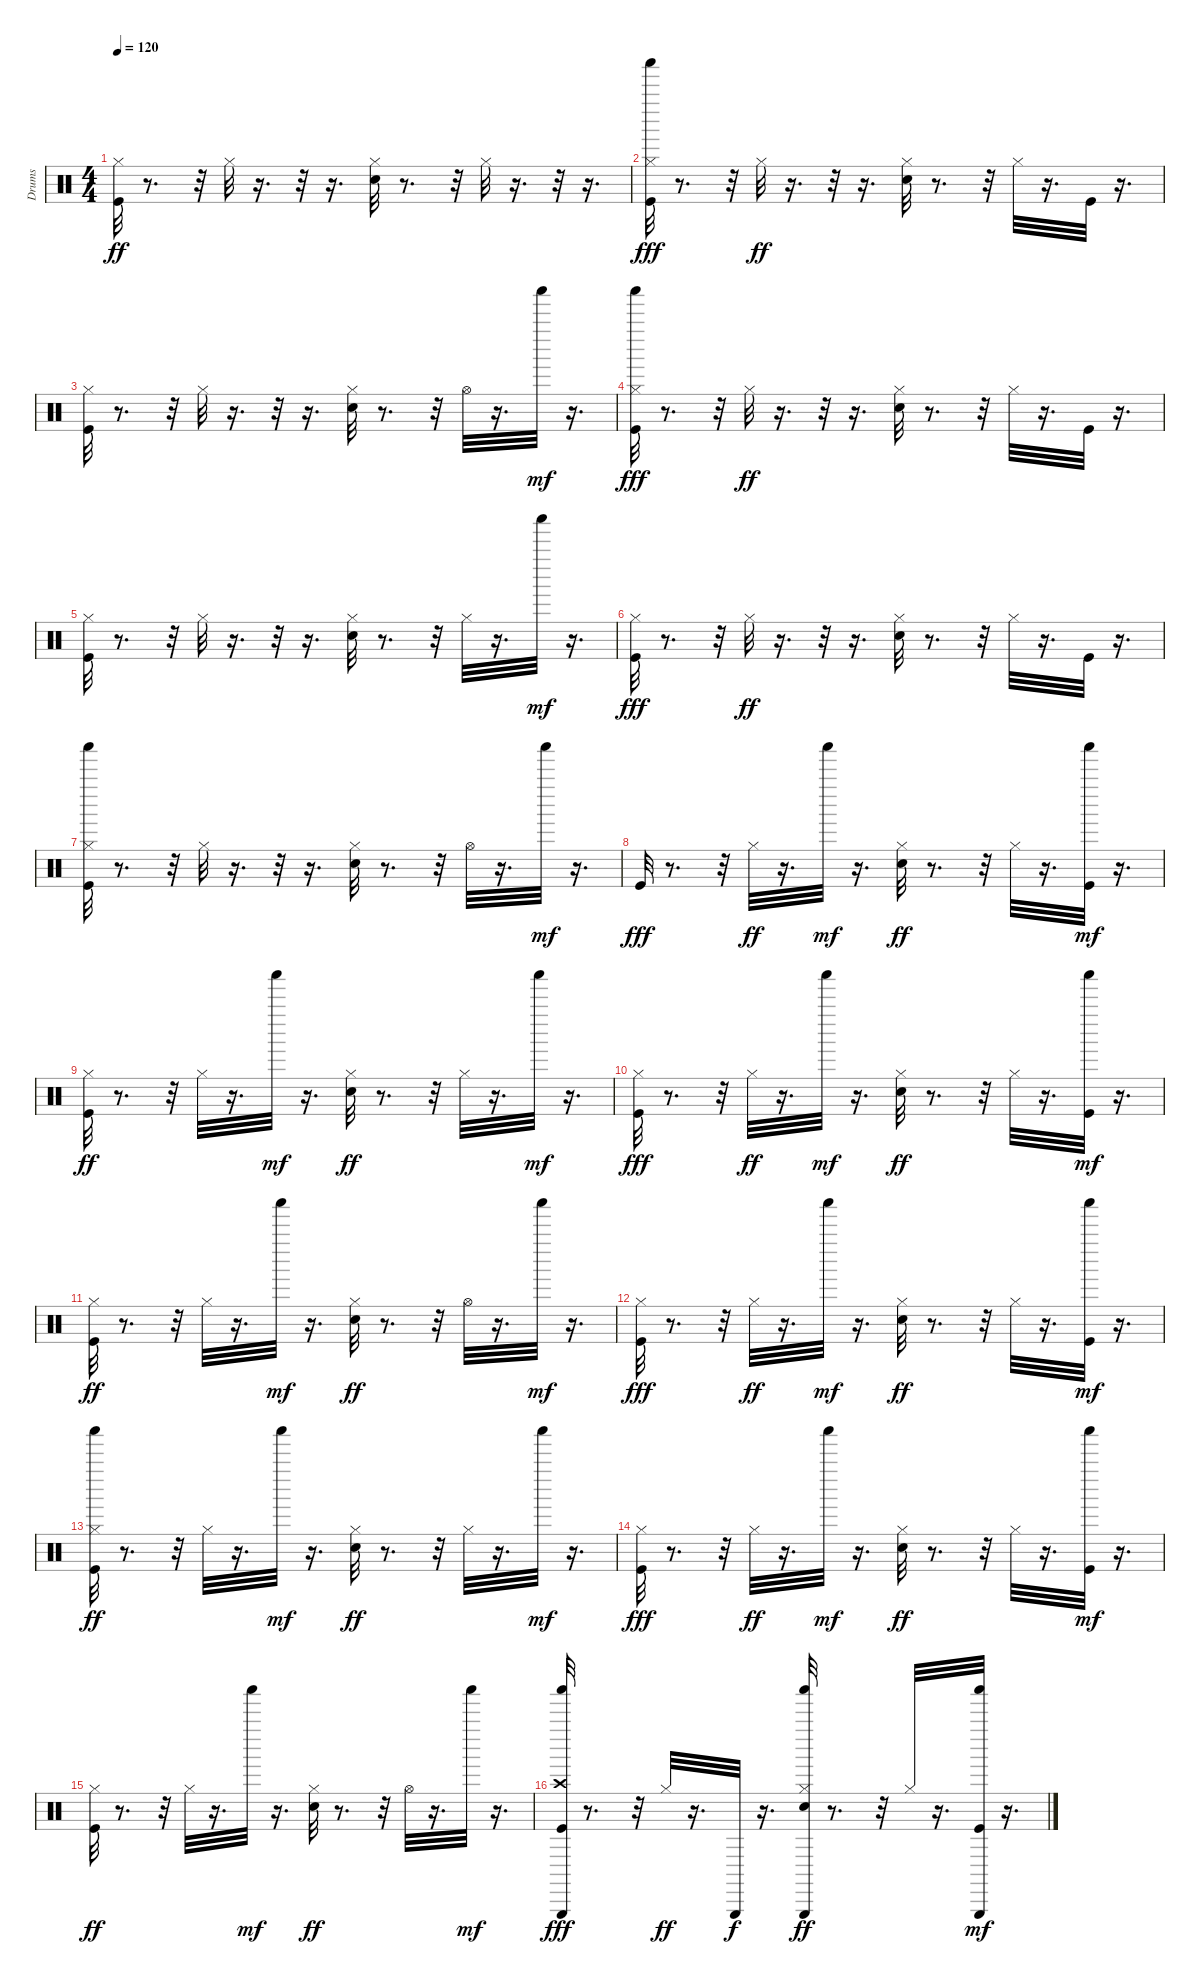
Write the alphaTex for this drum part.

\track ("Drums" "Drums") {instrument percussion}
\staff {score}
\articulation defaults
\ts (4 4)
\tempo 120
\clef neutral
\ks c
("Kick (hit)" "Hi-Hat (closed)").32{dy ff} r.8{d} r.32 "Hi-Hat (closed)".32 r.16{d} r.32 r.16{d} ("Electric Snare (hit)" "Hi-Hat (closed)").32 r.8{d} r.32 "Hi-Hat (closed)".32 r.16{d} r.32 r.16{d} |
("Shaker (hit)" "Hi-Hat (closed)" "Kick (hit)").32{dy fff} r.8{d} r.32 "Hi-Hat (closed)".32{dy ff} r.16{d} r.32 r.16{d} ("Electric Snare (hit)" "Hi-Hat (closed)").32 r.8{d} r.32 "Hi-Hat (closed)".32 r.16{d} "Kick (hit)".32 r.16{d} |
("Kick (hit)" "Hi-Hat (closed)").32 r.8{d} r.32 "Hi-Hat (closed)".32 r.16{d} r.32 r.16{d} ("Electric Snare (hit)" "Hi-Hat (closed)").32 r.8{d} r.32 "Hi-Hat (open)".32 r.16{d} "Shaker (hit)".32{dy mf} r.16{d} |
("Shaker (hit)" "Hi-Hat (closed)" "Kick (hit)").32{dy fff} r.8{d} r.32 "Hi-Hat (closed)".32{dy ff} r.16{d} r.32 r.16{d} ("Electric Snare (hit)" "Hi-Hat (closed)").32 r.8{d} r.32 "Hi-Hat (closed)".32 r.16{d} "Kick (hit)".32 r.16{d} |
("Kick (hit)" "Hi-Hat (closed)").32 r.8{d} r.32 "Hi-Hat (closed)".32 r.16{d} r.32 r.16{d} ("Electric Snare (hit)" "Hi-Hat (closed)").32 r.8{d} r.32 "Hi-Hat (closed)".32 r.16{d} "Shaker (hit)".32{dy mf} r.16{d} |
("Hi-Hat (closed)" "Kick (hit)").32{dy fff} r.8{d} r.32 "Hi-Hat (closed)".32{dy ff} r.16{d} r.32 r.16{d} ("Electric Snare (hit)" "Hi-Hat (closed)").32 r.8{d} r.32 "Hi-Hat (closed)".32 r.16{d} "Kick (hit)".32 r.16{d} |
("Shaker (hit)" "Kick (hit)" "Hi-Hat (closed)").32 r.8{d} r.32 "Hi-Hat (closed)".32 r.16{d} r.32 r.16{d} ("Electric Snare (hit)" "Hi-Hat (closed)").32 r.8{d} r.32 "Hi-Hat (open)".32 r.16{d} "Shaker (hit)".32{dy mf} r.16{d} |
"Kick (hit)".32{dy fff} r.8{d} r.32 "Hi-Hat (closed)".32{dy ff} r.16{d} "Shaker (hit)".32{dy mf} r.16{d} ("Electric Snare (hit)" "Hi-Hat (closed)").32{dy ff} r.8{d} r.32 "Hi-Hat (closed)".32 r.16{d} ("Kick (hit)" "Shaker (hit)").32{dy mf} r.16{d} |
("Kick (hit)" "Hi-Hat (closed)").32{dy ff} r.8{d} r.32 "Hi-Hat (closed)".32 r.16{d} "Shaker (hit)".32{dy mf} r.16{d} ("Electric Snare (hit)" "Hi-Hat (closed)").32{dy ff} r.8{d} r.32 "Hi-Hat (closed)".32 r.16{d} "Shaker (hit)".32{dy mf} r.16{d} |
("Hi-Hat (closed)" "Kick (hit)").32{dy fff} r.8{d} r.32 "Hi-Hat (closed)".32{dy ff} r.16{d} "Shaker (hit)".32{dy mf} r.16{d} ("Electric Snare (hit)" "Hi-Hat (closed)").32{dy ff} r.8{d} r.32 "Hi-Hat (closed)".32 r.16{d} ("Kick (hit)" "Shaker (hit)").32{dy mf} r.16{d} |
("Kick (hit)" "Hi-Hat (closed)").32{dy ff} r.8{d} r.32 "Hi-Hat (closed)".32 r.16{d} "Shaker (hit)".32{dy mf} r.16{d} ("Electric Snare (hit)" "Hi-Hat (closed)").32{dy ff} r.8{d} r.32 "Hi-Hat (open)".32 r.16{d} "Shaker (hit)".32{dy mf} r.16{d} |
("Hi-Hat (closed)" "Kick (hit)").32{dy fff} r.8{d} r.32 "Hi-Hat (closed)".32{dy ff} r.16{d} "Shaker (hit)".32{dy mf} r.16{d} ("Electric Snare (hit)" "Hi-Hat (closed)").32{dy ff} r.8{d} r.32 "Hi-Hat (closed)".32 r.16{d} ("Kick (hit)" "Shaker (hit)").32{dy mf} r.16{d} |
("Shaker (hit)" "Kick (hit)" "Hi-Hat (closed)").32{dy ff} r.8{d} r.32 "Hi-Hat (closed)".32 r.16{d} "Shaker (hit)".32{dy mf} r.16{d} ("Electric Snare (hit)" "Hi-Hat (closed)").32{dy ff} r.8{d} r.32 "Hi-Hat (closed)".32 r.16{d} "Shaker (hit)".32{dy mf} r.16{d} |
("Hi-Hat (closed)" "Kick (hit)").32{dy fff} r.8{d} r.32 "Hi-Hat (closed)".32{dy ff} r.16{d} "Shaker (hit)".32{dy mf} r.16{d} ("Electric Snare (hit)" "Hi-Hat (closed)").32{dy ff} r.8{d} r.32 "Hi-Hat (closed)".32 r.16{d} ("Kick (hit)" "Shaker (hit)").32{dy mf} r.16{d} |
("Kick (hit)" "Hi-Hat (closed)").32{dy ff} r.8{d} r.32 "Hi-Hat (closed)".32 r.16{d} "Shaker (hit)".32{dy mf} r.16{d} ("Electric Snare (hit)" "Hi-Hat (closed)").32{dy ff} r.8{d} r.32 "Hi-Hat (open)".32 r.16{d} "Shaker (hit)".32{dy mf} r.16{d} |
("Crash high (hit)" "Shaker (hit)" "Triangle (hit)" "Kick (hit)").32{dy fff} r.8{d} r.32 "Hi-Hat (closed)".32{dy ff} r.16{d} "Triangle (hit)".32{dy f} r.16{d} ("Shaker (hit)" "Triangle (hit)" "Electric Snare (hit)" "Hi-Hat (closed)").32{dy ff} r.8{d} r.32 "Hi-Hat (closed)".32 r.16{d} ("Kick (hit)" "Shaker (hit)" "Triangle (hit)").32{dy mf} r.16{d}
